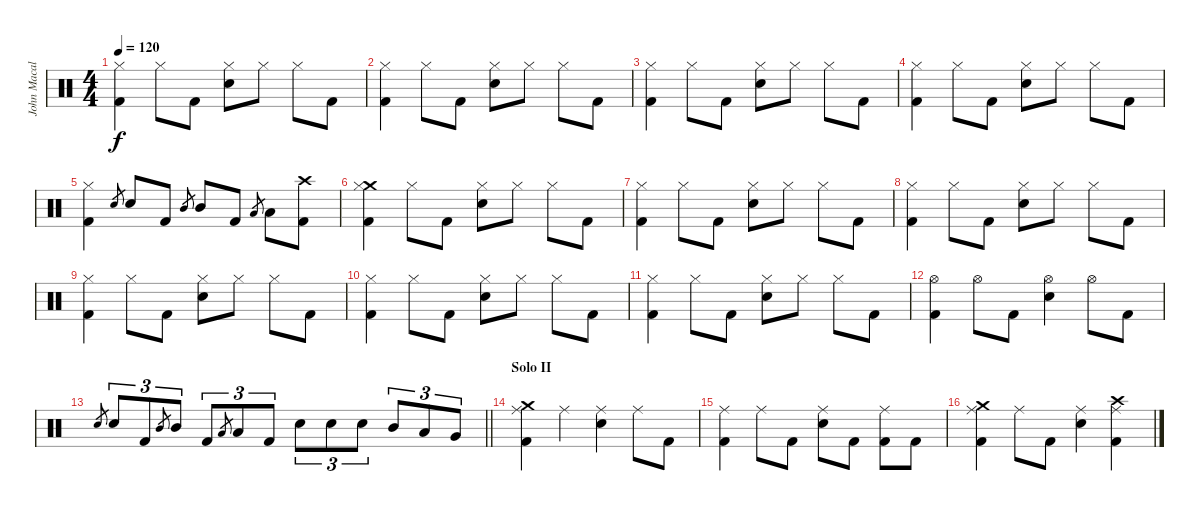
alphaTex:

\track ("John Macaluso" "John Macal") {instrument percussion}
\staff {score}
\articulation defaults
\ts (4 4)
\tempo 120
\clef neutral
\ks c
("Hi-Hat (closed)" "Kick (hit) 2").4{dy f} "Hi-Hat (closed)".8 "Kick (hit) 2".8 ("Hi-Hat (closed)" "Snare (hit) 2").8 "Hi-Hat (closed)".8 "Hi-Hat (closed)".8 "Kick (hit) 2".8 |
("Hi-Hat (closed)" "Kick (hit) 2").4 "Hi-Hat (closed)".8 "Kick (hit) 2".8 ("Hi-Hat (closed)" "Snare (hit) 2").8 "Hi-Hat (closed)".8 "Hi-Hat (closed)".8 "Kick (hit) 2".8 |
("Hi-Hat (closed)" "Kick (hit) 2").4 "Hi-Hat (closed)".8 "Kick (hit) 2".8 ("Hi-Hat (closed)" "Snare (hit) 2").8 "Hi-Hat (closed)".8 "Hi-Hat (closed)".8 "Kick (hit) 2".8 |
("Hi-Hat (closed)" "Kick (hit) 2").4 "Hi-Hat (closed)".8 "Kick (hit) 2".8 ("Hi-Hat (closed)" "Snare (hit) 2").8 "Hi-Hat (closed)".8 "Hi-Hat (closed)".8 "Kick (hit) 2".8 |
("Hi-Hat (closed)" "Kick (hit) 2").4 "Snare (hit) 2".8{gr} "Snare (hit) 2".8 "Kick (hit) 2".8 "Mid Tom (hit)".8{gr} "Mid Tom (hit)".8 "Kick (hit) 2".8 "Low Tom (hit)".8{gr} "Low Tom (hit)".8 ("Crash high (hit)" "Kick (hit) 2").8 |
("Crash medium (hit)" "Hi-Hat (closed)" "Kick (hit) 2").4 "Hi-Hat (closed)".8 "Kick (hit) 2".8 ("Hi-Hat (closed)" "Snare (hit) 2").8 "Hi-Hat (closed)".8 "Hi-Hat (closed)".8 "Kick (hit) 2".8 |
("Hi-Hat (closed)" "Kick (hit) 2").4 "Hi-Hat (closed)".8 "Kick (hit) 2".8 ("Hi-Hat (closed)" "Snare (hit) 2").8 "Hi-Hat (closed)".8 "Hi-Hat (closed)".8 "Kick (hit) 2".8 |
("Hi-Hat (closed)" "Kick (hit) 2").4 "Hi-Hat (closed)".8 "Kick (hit) 2".8 ("Hi-Hat (closed)" "Snare (hit) 2").8 "Hi-Hat (closed)".8 "Hi-Hat (closed)".8 "Kick (hit) 2".8 |
("Hi-Hat (closed)" "Kick (hit) 2").4 "Hi-Hat (closed)".8 "Kick (hit) 2".8 ("Hi-Hat (closed)" "Snare (hit) 2").8 "Hi-Hat (closed)".8 "Hi-Hat (closed)".8 "Kick (hit) 2".8 |
("Hi-Hat (closed)" "Kick (hit) 2").4 "Hi-Hat (closed)".8 "Kick (hit) 2".8 ("Hi-Hat (closed)" "Snare (hit) 2").8 "Hi-Hat (closed)".8 "Hi-Hat (closed)".8 "Kick (hit) 2".8 |
("Hi-Hat (closed)" "Kick (hit) 2").4 "Hi-Hat (closed)".8 "Kick (hit) 2".8 ("Hi-Hat (closed)" "Snare (hit) 2").8 "Hi-Hat (closed)".8 "Hi-Hat (closed)".8 "Kick (hit) 2".8 |
("Hi-Hat (open)" "Kick (hit) 2").4 "Hi-Hat (open)".8 "Kick (hit) 2".8 ("Hi-Hat (open)" "Snare (hit) 2").4 "Hi-Hat (open)".8 "Kick (hit) 2".8 |
\barLineRight lightlight "Snare (hit) 2".8{gr} "Snare (hit) 2".8{tu (3 2)} "Kick (hit) 2".8{tu (3 2)} "Mid Tom (hit)".8{gr} "Mid Tom (hit)".8{tu (3 2)} "Kick (hit) 2".8{tu (3 2)} "Low Tom (hit)".8{gr} "Low Tom (hit)".8{tu (3 2)} "Kick (hit) 2".8{tu (3 2)} "Snare (hit) 2".8{tu (3 2)} "Snare (hit) 2".8{tu (3 2)} "Snare (hit) 2".8{tu (3 2)} "Mid Tom (hit)".8{tu (3 2)} "Low Tom (hit)".8{tu (3 2)} "Very Low Tom (hit)".8{tu (3 2)}
|
\section ("" "Solo II")
("Crash medium (hit)" "Ride (middle)" "Kick (hit) 2").4 "Ride (middle)".4 ("Ride (middle)" "Snare (hit) 2").4 "Ride (middle)".8 "Kick (hit) 2".8 |
("Ride (middle)" "Kick (hit) 2").4 "Ride (middle)".8 "Kick (hit) 2".8 ("Ride (middle)" "Snare (hit) 2").8 "Kick (hit) 2".8 ("Ride (middle)" "Kick (hit) 2").8 "Kick (hit) 2".8 |
("Crash medium (hit)" "Ride (middle)" "Kick (hit) 2").4 "Ride (middle)".8 "Kick (hit) 2".8 ("Ride (middle)" "Snare (hit) 2").4 ("Crash high (hit)" "Ride (middle)" "Kick (hit) 2").4
